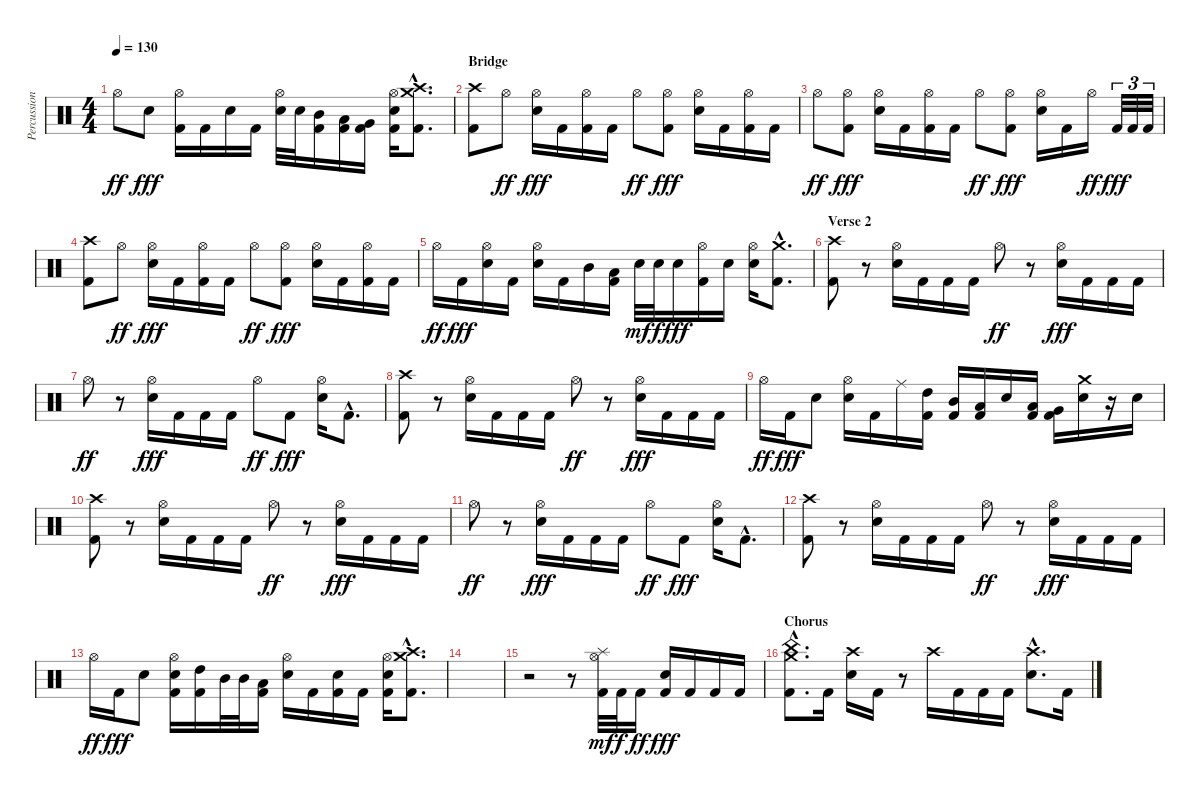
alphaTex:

\track ("Percussion" "Percussion") {instrument percussion}
\staff {score}
\articulation defaults
\ts (4 4)
\tempo 130
\clef neutral
\ks c "Hi-Hat (open)".8{dy ff} "Electric Snare (hit)".8{dy fff}
("Hi-Hat (open)" "Kick (hit) 2").16 "Kick (hit) 2".16 "Electric Snare (hit)".16 "Kick (hit) 2".16 ("Hi-Hat (open)" "Electric Snare (hit)").32 "Electric Snare (hit)".32 ("Mid Tom (hit)" "Kick (hit) 2").16 ("Low Tom (hit)" "Kick (hit) 2").16 ("Very Low Tom (hit)" "Kick (hit) 2").16 ("Hi-Hat (open)" "Electric Snare (hit)" "Kick (hit) 2").16 ("Crash medium (hit)"{hac} "Crash high (hit)"{hac} "Kick (hit) 2"{hac}).8{d} |
\section ("" "Bridge")
("Crash high (hit)" "Kick (hit) 2").8 "Hi-Hat (open)".8{dy ff} ("Hi-Hat (open)" "Electric Snare (hit)").16{dy fff} "Kick (hit) 2".16 ("Hi-Hat (open)" "Kick (hit) 2").16 "Kick (hit) 2".16 "Hi-Hat (open)".8{dy ff} ("Hi-Hat (open)" "Kick (hit) 2").8{dy fff} ("Hi-Hat (open)" "Electric Snare (hit)").16 "Kick (hit) 2".16 ("Hi-Hat (open)" "Kick (hit) 2").16 "Kick (hit) 2".16 |
"Hi-Hat (open)".8{dy ff} ("Hi-Hat (open)" "Kick (hit) 2").8{dy fff} ("Hi-Hat (open)" "Electric Snare (hit)").16 "Kick (hit) 2".16 ("Hi-Hat (open)" "Kick (hit) 2").16 "Kick (hit) 2".16 "Hi-Hat (open)".8{dy ff} ("Hi-Hat (open)" "Kick (hit) 2").8{dy fff} ("Hi-Hat (open)" "Electric Snare (hit)").16 "Kick (hit) 2".16 "Hi-Hat (open)".16{dy ff} "Kick (hit) 2".32{tu (3 2) dy fff} "Kick (hit) 2".32{tu (3 2)} "Kick (hit) 2".32{tu (3 2)} |
("Crash high (hit)" "Kick (hit) 2").8 "Hi-Hat (open)".8{dy ff} ("Hi-Hat (open)" "Electric Snare (hit)").16{dy fff} "Kick (hit) 2".16 ("Hi-Hat (open)" "Kick (hit) 2").16 "Kick (hit) 2".16 "Hi-Hat (open)".8{dy ff} ("Hi-Hat (open)" "Kick (hit) 2").8{dy fff} ("Hi-Hat (open)" "Electric Snare (hit)").16 "Kick (hit) 2".16 ("Hi-Hat (open)" "Kick (hit) 2").16 "Kick (hit) 2".16 |
"Hi-Hat (open)".16{dy ff} "Kick (hit) 2".16{dy fff} ("Hi-Hat (open)" "Electric Snare (hit)").16 "Kick (hit) 2".16 ("Hi-Hat (open)" "Electric Snare (hit)").16 "Kick (hit) 2".16 "Mid Tom (hit)".16 ("Low Tom (hit)" "Kick (hit) 2").16 "Electric Snare (hit)".32{dy mf} "Electric Snare (hit)".32{dy f} "Electric Snare (hit)".16{dy fff} ("Hi-Hat (open)" "Kick (hit) 2").16 "Electric Snare (hit)".16 ("Hi-Hat (open)" "Electric Snare (hit)").16 ("Crash medium (hit)"{hac} "Kick (hit) 2"{hac}).8{d} |
\section ("" "Verse 2")
("Crash high (hit)" "Kick (hit) 2").8 r.8 ("Hi-Hat (open)" "Electric Snare (hit)").16 "Kick (hit) 2".16 "Kick (hit) 2".16 "Kick (hit) 2".16 "Hi-Hat (open)".8{dy ff} r.8 ("Hi-Hat (open)" "Electric Snare (hit)").16{dy fff} "Kick (hit) 2".16 "Kick (hit) 2".16 "Kick (hit) 2".16 |
"Hi-Hat (open)".8{dy ff} r.8 ("Hi-Hat (open)" "Electric Snare (hit)").16{dy fff} "Kick (hit) 2".16 "Kick (hit) 2".16 "Kick (hit) 2".16 "Hi-Hat (open)".8{dy ff} "Kick (hit) 2".8{dy fff} ("Hi-Hat (open)" "Electric Snare (hit)").16 "Kick (hit) 2"{hac}.8{d} |
("Crash high (hit)" "Kick (hit) 2").8 r.8 ("Hi-Hat (open)" "Electric Snare (hit)").16 "Kick (hit) 2".16 "Kick (hit) 2".16 "Kick (hit) 2".16 "Hi-Hat (open)".8{dy ff} r.8 ("Hi-Hat (open)" "Electric Snare (hit)").16{dy fff} "Kick (hit) 2".16 "Kick (hit) 2".16 "Kick (hit) 2".16 |
"Hi-Hat (open)".16{dy ff} "Kick (hit) 2".16{dy fff} "Electric Snare (hit)".8 ("Hi-Hat (open)" "Electric Snare (hit)").16 "Kick (hit) 2".16 "Ride (middle)".16 ("High Tom (hit)" "Kick (hit) 2").16 ("Mid Tom (hit)" "Kick (hit) 2").16 ("Low Tom (hit)" "Kick (hit) 2").16 "Electric Snare (hit)".16 ("Low Tom (hit)" "Kick (hit) 2").16 ("Very Low Tom (hit)" "Kick (hit) 2").16 ("Crash medium (hit)" "Electric Snare (hit)").16 r.16 "Electric Snare (hit)".16 |
("Crash high (hit)" "Kick (hit) 2").8 r.8 ("Hi-Hat (open)" "Electric Snare (hit)").16 "Kick (hit) 2".16 "Kick (hit) 2".16 "Kick (hit) 2".16 "Hi-Hat (open)".8{dy ff} r.8 ("Hi-Hat (open)" "Electric Snare (hit)").16{dy fff} "Kick (hit) 2".16 "Kick (hit) 2".16 "Kick (hit) 2".16 |
"Hi-Hat (open)".8{dy ff} r.8 ("Hi-Hat (open)" "Electric Snare (hit)").16{dy fff} "Kick (hit) 2".16 "Kick (hit) 2".16 "Kick (hit) 2".16 "Hi-Hat (open)".8{dy ff} "Kick (hit) 2".8{dy fff} ("Hi-Hat (open)" "Electric Snare (hit)").16 "Kick (hit) 2"{hac}.8{d} |
("Crash high (hit)" "Kick (hit) 2").8 r.8 ("Hi-Hat (open)" "Electric Snare (hit)").16 "Kick (hit) 2".16 "Kick (hit) 2".16 "Kick (hit) 2".16 "Hi-Hat (open)".8{dy ff} r.8 ("Hi-Hat (open)" "Electric Snare (hit)").16{dy fff} "Kick (hit) 2".16 "Kick (hit) 2".16 "Kick (hit) 2".16 |
"Hi-Hat (open)".16{dy ff} "Kick (hit) 2".16{dy fff} "Electric Snare (hit)".8 ("Hi-Hat (open)" "Electric Snare (hit)" "Kick (hit) 2").16 ("High Tom (hit)" "Kick (hit) 2").16 "Mid Tom (hit)".32 "Mid Tom (hit)".32 ("Low Tom (hit)" "Kick (hit) 2").16 ("Hi-Hat (open)" "Electric Snare (hit)").16 "Kick (hit) 2".16 ("Electric Snare (hit)" "Kick (hit) 2").16 "Kick (hit) 2".16 ("Hi-Hat (open)" "Electric Snare (hit)" "Kick (hit) 2").16 ("Crash medium (hit)"{hac} "Crash high (hit)"{hac} "Kick (hit) 2"{hac}).8{d} |
|
r.2 r.8 ("Splash (hit)" "Hi-Hat (open)" "Kick (hit) 2").32{dy mf} "Kick (hit) 2".32{dy f} "Kick (hit) 2".16{dy ff} ("Electric Snare (hit)" "Kick (hit) 2").16{dy fff} "Kick (hit) 2".16 "Kick (hit) 2".16 "Kick (hit) 2".16 |
\section ("" "Chorus")
("Crash medium (hit)"{hac} "China (hit)"{hac} "Kick (hit) 2"{hac}).8{d} "Kick (hit) 2".16 ("Crash high (hit)" "Electric Snare (hit)").16 "Kick (hit) 2".16 r.8 "Crash high (hit)".16 "Kick (hit) 2".16 "Kick (hit) 2".16 "Kick (hit) 2".16 ("Crash high (hit)"{hac} "Electric Snare (hit)"{hac}).8{d} "Kick (hit) 2".16
